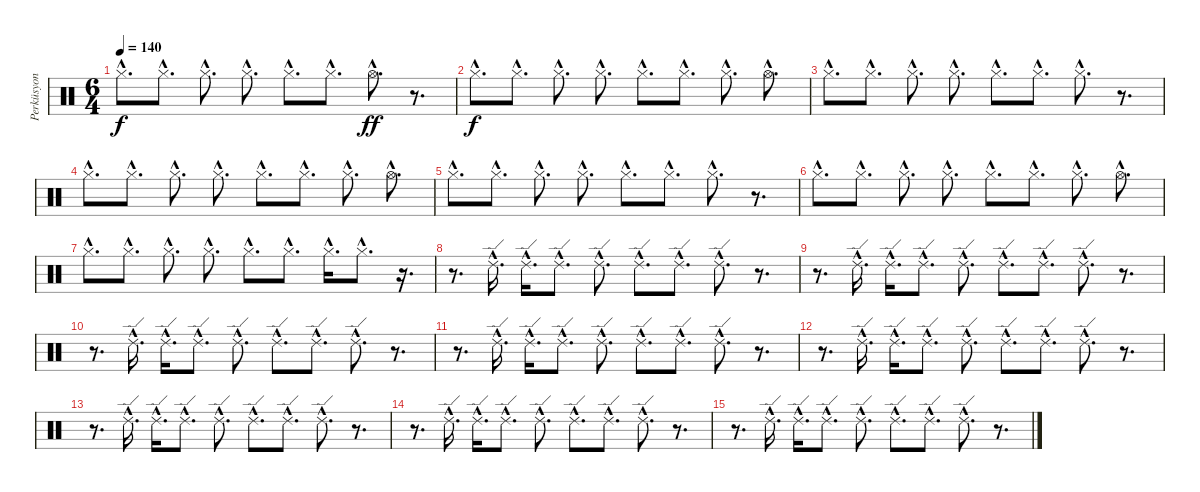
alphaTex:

\track ("Perküsyon" "Perküsyon") {instrument percussion}
\staff {score}
\articulation defaults
\ts (6 4)
\tempo 140
\clef neutral
\ks c "Hi-Hat (closed)"{hac}.8{d dy f} "Hi-Hat (closed)"{hac}.8{d} "Hi-Hat (closed)"{hac}.8{d} "Hi-Hat (closed)"{hac}.8{d} "Hi-Hat (closed)"{hac}.8{d} "Hi-Hat (closed)"{hac}.8{d} "Hi-Hat (open)"{hac}.8{d dy ff}
r.8{d} |
"Hi-Hat (closed)"{hac}.8{d dy f} "Hi-Hat (closed)"{hac}.8{d} "Hi-Hat (closed)"{hac}.8{d} "Hi-Hat (closed)"{hac}.8{d} "Hi-Hat (closed)"{hac}.8{d} "Hi-Hat (closed)"{hac}.8{d} "Hi-Hat (closed)"{hac}.8{d} "Hi-Hat (open)"{hac}.8{d} |
"Hi-Hat (closed)"{hac}.8{d} "Hi-Hat (closed)"{hac}.8{d} "Hi-Hat (closed)"{hac}.8{d} "Hi-Hat (closed)"{hac}.8{d} "Hi-Hat (closed)"{hac}.8{d} "Hi-Hat (closed)"{hac}.8{d} "Hi-Hat (closed)"{hac}.8{d} r.8{d} |
"Hi-Hat (closed)"{hac}.8{d} "Hi-Hat (closed)"{hac}.8{d} "Hi-Hat (closed)"{hac}.8{d} "Hi-Hat (closed)"{hac}.8{d} "Hi-Hat (closed)"{hac}.8{d} "Hi-Hat (closed)"{hac}.8{d} "Hi-Hat (closed)"{hac}.8{d} "Hi-Hat (open)"{hac}.8{d} |
"Hi-Hat (closed)"{hac}.8{d} "Hi-Hat (closed)"{hac}.8{d} "Hi-Hat (closed)"{hac}.8{d} "Hi-Hat (closed)"{hac}.8{d} "Hi-Hat (closed)"{hac}.8{d} "Hi-Hat (closed)"{hac}.8{d} "Hi-Hat (closed)"{hac}.8{d} r.8{d} |
"Hi-Hat (closed)"{hac}.8{d} "Hi-Hat (closed)"{hac}.8{d} "Hi-Hat (closed)"{hac}.8{d} "Hi-Hat (closed)"{hac}.8{d} "Hi-Hat (closed)"{hac}.8{d} "Hi-Hat (closed)"{hac}.8{d} "Hi-Hat (closed)"{hac}.8{d} "Hi-Hat (open)"{hac}.8{d} |
"Hi-Hat (closed)"{hac}.8{d} "Hi-Hat (closed)"{hac}.8{d} "Hi-Hat (closed)"{hac}.8{d} "Hi-Hat (closed)"{hac}.8{d} "Hi-Hat (closed)"{hac}.8{d} "Hi-Hat (closed)"{hac}.8{d} "Hi-Hat (closed)"{hac}.16{d} "Hi-Hat (closed)"{hac}.8{d} r.16{d} |
r.8{d} "Ride (edge) 2"{hac}.16{d} "Ride (edge) 2"{hac}.16{d} "Ride (edge) 2"{hac}.8{d} "Ride (edge) 2"{hac}.8{d} "Ride (edge) 2"{hac}.8{d} "Ride (edge) 2"{hac}.8{d} "Ride (edge) 2"{hac}.8{d} r.8{d} |
r.8{d} "Ride (edge) 2"{hac}.16{d} "Ride (edge) 2"{hac}.16{d} "Ride (edge) 2"{hac}.8{d} "Ride (edge) 2"{hac}.8{d} "Ride (edge) 2"{hac}.8{d} "Ride (edge) 2"{hac}.8{d} "Ride (edge) 2"{hac}.8{d} r.8{d} |
r.8{d} "Ride (edge) 2"{hac}.16{d} "Ride (edge) 2"{hac}.16{d} "Ride (edge) 2"{hac}.8{d} "Ride (edge) 2"{hac}.8{d} "Ride (edge) 2"{hac}.8{d} "Ride (edge) 2"{hac}.8{d} "Ride (edge) 2"{hac}.8{d} r.8{d} |
r.8{d} "Ride (edge) 2"{hac}.16{d} "Ride (edge) 2"{hac}.16{d} "Ride (edge) 2"{hac}.8{d} "Ride (edge) 2"{hac}.8{d} "Ride (edge) 2"{hac}.8{d} "Ride (edge) 2"{hac}.8{d} "Ride (edge) 2"{hac}.8{d} r.8{d} |
r.8{d} "Ride (edge) 2"{hac}.16{d} "Ride (edge) 2"{hac}.16{d} "Ride (edge) 2"{hac}.8{d} "Ride (edge) 2"{hac}.8{d} "Ride (edge) 2"{hac}.8{d} "Ride (edge) 2"{hac}.8{d} "Ride (edge) 2"{hac}.8{d} r.8{d} |
r.8{d} "Ride (edge) 2"{hac}.16{d} "Ride (edge) 2"{hac}.16{d} "Ride (edge) 2"{hac}.8{d} "Ride (edge) 2"{hac}.8{d} "Ride (edge) 2"{hac}.8{d} "Ride (edge) 2"{hac}.8{d} "Ride (edge) 2"{hac}.8{d} r.8{d} |
r.8{d} "Ride (edge) 2"{hac}.16{d} "Ride (edge) 2"{hac}.16{d} "Ride (edge) 2"{hac}.8{d} "Ride (edge) 2"{hac}.8{d} "Ride (edge) 2"{hac}.8{d} "Ride (edge) 2"{hac}.8{d} "Ride (edge) 2"{hac}.8{d} r.8{d} |
r.8{d} "Ride (edge) 2"{hac}.16{d} "Ride (edge) 2"{hac}.16{d} "Ride (edge) 2"{hac}.8{d} "Ride (edge) 2"{hac}.8{d} "Ride (edge) 2"{hac}.8{d} "Ride (edge) 2"{hac}.8{d} "Ride (edge) 2"{hac}.8{d} r.8{d}
